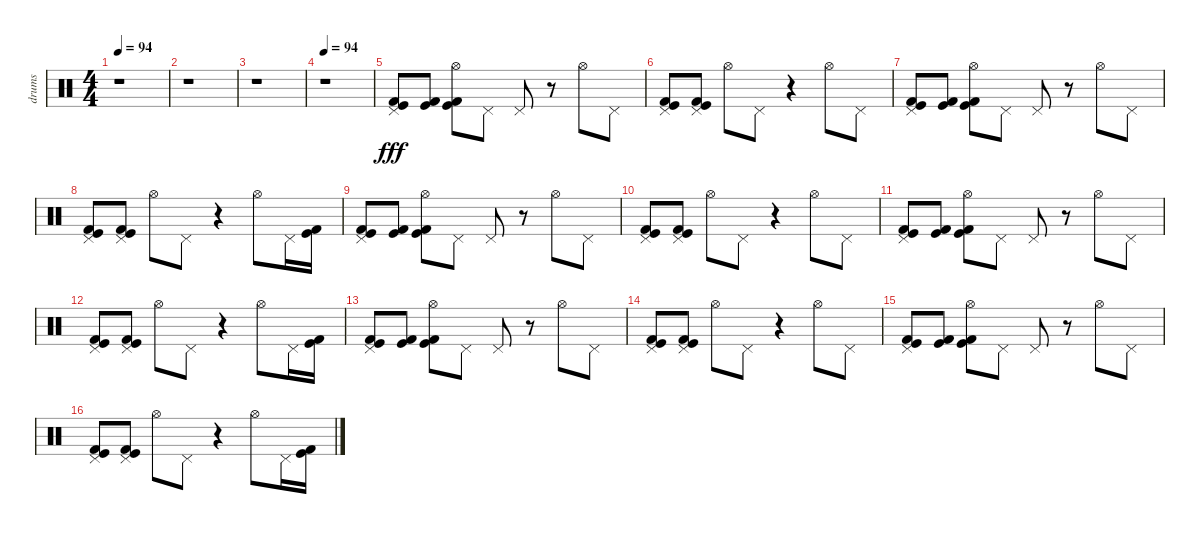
\track ("drums" "drums") {instrument percussion}
\staff {score}
\articulation defaults
\ts (4 4)
\tempo 94
\clef neutral
\ks c
r.1{dy fff} |
r.1 |
r.1 |
\tempo 94
r.1 |
("Pedal Hi-Hat (hit)" "Kick (hit) 2" "Kick (hit)").8 ("Kick (hit) 2" "Kick (hit)").8 ("Hi-Hat (open)" "Kick (hit) 2" "Kick (hit)").8 "Pedal Hi-Hat (hit)".8 "Pedal Hi-Hat (hit)".8 r.8 "Hi-Hat (open)".8 "Pedal Hi-Hat (hit)".8 |
("Kick (hit)" "Kick (hit) 2" "Pedal Hi-Hat (hit)").8 ("Kick (hit) 2" "Kick (hit)" "Pedal Hi-Hat (hit)").8 "Hi-Hat (open)".8 "Pedal Hi-Hat (hit)".8 r.4 "Hi-Hat (open)".8 "Pedal Hi-Hat (hit)".8 |
("Kick (hit)" "Kick (hit) 2" "Pedal Hi-Hat (hit)").8 ("Kick (hit) 2" "Kick (hit)").8 ("Hi-Hat (open)" "Kick (hit) 2" "Kick (hit)").8 "Pedal Hi-Hat (hit)".8 "Pedal Hi-Hat (hit)".8 r.8 "Hi-Hat (open)".8 "Pedal Hi-Hat (hit)".8 |
("Kick (hit)" "Kick (hit) 2" "Pedal Hi-Hat (hit)").8 ("Kick (hit) 2" "Kick (hit)" "Pedal Hi-Hat (hit)").8 "Hi-Hat (open)".8 "Pedal Hi-Hat (hit)".8 r.4 "Hi-Hat (open)".8 "Pedal Hi-Hat (hit)".16 ("Kick (hit) 2" "Kick (hit)").16 |
("Pedal Hi-Hat (hit)" "Kick (hit) 2" "Kick (hit)").8 ("Kick (hit) 2" "Kick (hit)").8 ("Hi-Hat (open)" "Kick (hit) 2" "Kick (hit)").8 "Pedal Hi-Hat (hit)".8 "Pedal Hi-Hat (hit)".8 r.8 "Hi-Hat (open)".8 "Pedal Hi-Hat (hit)".8 |
("Kick (hit)" "Kick (hit) 2" "Pedal Hi-Hat (hit)").8 ("Kick (hit) 2" "Kick (hit)" "Pedal Hi-Hat (hit)").8 "Hi-Hat (open)".8 "Pedal Hi-Hat (hit)".8 r.4 "Hi-Hat (open)".8 "Pedal Hi-Hat (hit)".8 |
("Kick (hit)" "Kick (hit) 2" "Pedal Hi-Hat (hit)").8 ("Kick (hit) 2" "Kick (hit)").8 ("Hi-Hat (open)" "Kick (hit) 2" "Kick (hit)").8 "Pedal Hi-Hat (hit)".8 "Pedal Hi-Hat (hit)".8 r.8 "Hi-Hat (open)".8 "Pedal Hi-Hat (hit)".8 |
("Kick (hit)" "Kick (hit) 2" "Pedal Hi-Hat (hit)").8 ("Kick (hit) 2" "Kick (hit)" "Pedal Hi-Hat (hit)").8 "Hi-Hat (open)".8 "Pedal Hi-Hat (hit)".8 r.4 "Hi-Hat (open)".8 "Pedal Hi-Hat (hit)".16 ("Kick (hit) 2" "Kick (hit)").16 |
("Pedal Hi-Hat (hit)" "Kick (hit) 2" "Kick (hit)").8 ("Kick (hit) 2" "Kick (hit)").8 ("Hi-Hat (open)" "Kick (hit) 2" "Kick (hit)").8 "Pedal Hi-Hat (hit)".8 "Pedal Hi-Hat (hit)".8 r.8 "Hi-Hat (open)".8 "Pedal Hi-Hat (hit)".8 |
("Kick (hit)" "Kick (hit) 2" "Pedal Hi-Hat (hit)").8 ("Kick (hit) 2" "Kick (hit)" "Pedal Hi-Hat (hit)").8 "Hi-Hat (open)".8 "Pedal Hi-Hat (hit)".8 r.4 "Hi-Hat (open)".8 "Pedal Hi-Hat (hit)".8 |
("Kick (hit)" "Kick (hit) 2" "Pedal Hi-Hat (hit)").8 ("Kick (hit) 2" "Kick (hit)").8 ("Hi-Hat (open)" "Kick (hit) 2" "Kick (hit)").8 "Pedal Hi-Hat (hit)".8 "Pedal Hi-Hat (hit)".8 r.8 "Hi-Hat (open)".8 "Pedal Hi-Hat (hit)".8 |
("Kick (hit)" "Kick (hit) 2" "Pedal Hi-Hat (hit)").8 ("Kick (hit) 2" "Kick (hit)" "Pedal Hi-Hat (hit)").8 "Hi-Hat (open)".8 "Pedal Hi-Hat (hit)".8 r.4 "Hi-Hat (open)".8 "Pedal Hi-Hat (hit)".16 ("Kick (hit) 2" "Kick (hit)").16
